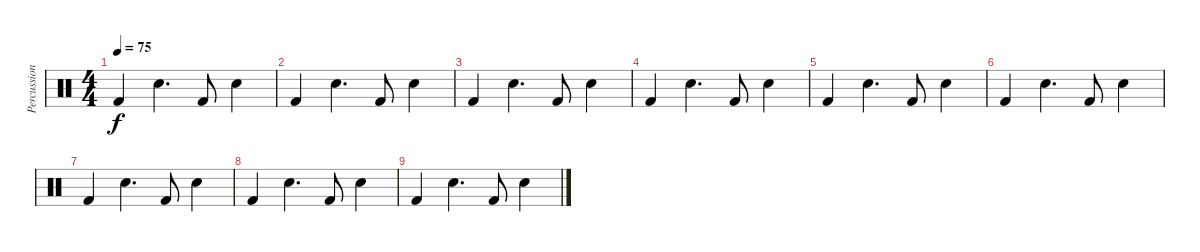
\track ("Percussion" "Percussion") {instrument percussion}
\staff {score}
\articulation defaults
\ts (4 4)
\tempo 75
\clef neutral
\ks c "Kick (hit) 2".4{dy f} "Hand Clap (hit)".4{d} "Kick (hit) 2".8 "Hand Clap (hit)".4
|
"Kick (hit) 2".4 "Hand Clap (hit)".4{d} "Kick (hit) 2".8 "Hand Clap (hit)".4 |
"Kick (hit) 2".4 "Hand Clap (hit)".4{d} "Kick (hit) 2".8 "Hand Clap (hit)".4 |
"Kick (hit) 2".4 "Hand Clap (hit)".4{d} "Kick (hit) 2".8 "Hand Clap (hit)".4 |
"Kick (hit) 2".4 "Hand Clap (hit)".4{d} "Kick (hit) 2".8 "Hand Clap (hit)".4 |
"Kick (hit) 2".4 "Hand Clap (hit)".4{d} "Kick (hit) 2".8 "Hand Clap (hit)".4 |
"Kick (hit) 2".4 "Hand Clap (hit)".4{d} "Kick (hit) 2".8 "Hand Clap (hit)".4 |
"Kick (hit) 2".4 "Hand Clap (hit)".4{d} "Kick (hit) 2".8 "Hand Clap (hit)".4 |
"Kick (hit) 2".4 "Hand Clap (hit)".4{d} "Kick (hit) 2".8 "Hand Clap (hit)".4
